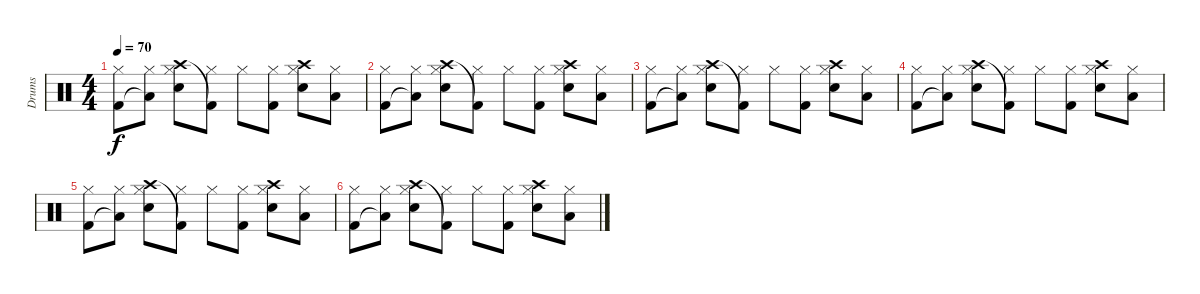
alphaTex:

\track ("Drums" "Drums") {instrument percussion}
\staff {score}
\articulation defaults
\ts (4 4)
\tempo 70
\clef neutral
\ks c
("Kick (hit) 2" "Hi-Hat (closed)").8{dy f} ("Low Floor Tom (hit)"{t} "Hi-Hat (closed)").8 ("Crash high (hit)" "Electric Snare (hit)" "Hi-Hat (closed)").8 ("Kick (hit) 2"{t} "Hi-Hat (closed)").8 "Hi-Hat (closed)".8 ("Kick (hit) 2" "Hi-Hat (closed)").8 ("Crash high (hit)" "Electric Snare (hit)" "Hi-Hat (closed)").8 ("Low Floor Tom (hit)" "Hi-Hat (closed)").8 |
("Kick (hit) 2" "Hi-Hat (closed)").8 ("Low Floor Tom (hit)"{t} "Hi-Hat (closed)").8 ("Crash high (hit)" "Electric Snare (hit)" "Hi-Hat (closed)").8 ("Kick (hit) 2"{t} "Hi-Hat (closed)").8 "Hi-Hat (closed)".8 ("Kick (hit) 2" "Hi-Hat (closed)").8 ("Crash high (hit)" "Electric Snare (hit)" "Hi-Hat (closed)").8 ("Low Floor Tom (hit)" "Hi-Hat (closed)").8 |
("Kick (hit) 2" "Hi-Hat (closed)").8 ("Low Floor Tom (hit)"{t} "Hi-Hat (closed)").8 ("Crash high (hit)" "Electric Snare (hit)" "Hi-Hat (closed)").8 ("Kick (hit) 2"{t} "Hi-Hat (closed)").8 "Hi-Hat (closed)".8 ("Kick (hit) 2" "Hi-Hat (closed)").8 ("Crash high (hit)" "Electric Snare (hit)" "Hi-Hat (closed)").8 ("Low Floor Tom (hit)" "Hi-Hat (closed)").8 |
("Kick (hit) 2" "Hi-Hat (closed)").8 ("Low Floor Tom (hit)"{t} "Hi-Hat (closed)").8 ("Crash high (hit)" "Electric Snare (hit)" "Hi-Hat (closed)").8 ("Kick (hit) 2"{t} "Hi-Hat (closed)").8 "Hi-Hat (closed)".8 ("Kick (hit) 2" "Hi-Hat (closed)").8 ("Crash high (hit)" "Electric Snare (hit)" "Hi-Hat (closed)").8 ("Low Floor Tom (hit)" "Hi-Hat (closed)").8 |
("Kick (hit) 2" "Hi-Hat (closed)").8 ("Low Floor Tom (hit)"{t} "Hi-Hat (closed)").8 ("Crash high (hit)" "Electric Snare (hit)" "Hi-Hat (closed)").8 ("Kick (hit) 2"{t} "Hi-Hat (closed)").8 "Hi-Hat (closed)".8 ("Kick (hit) 2" "Hi-Hat (closed)").8 ("Crash high (hit)" "Electric Snare (hit)" "Hi-Hat (closed)").8 ("Low Floor Tom (hit)" "Hi-Hat (closed)").8 |
("Kick (hit) 2" "Hi-Hat (closed)").8 ("Low Floor Tom (hit)"{t} "Hi-Hat (closed)").8 ("Crash high (hit)" "Electric Snare (hit)" "Hi-Hat (closed)").8 ("Kick (hit) 2"{t} "Hi-Hat (closed)").8 "Hi-Hat (closed)".8 ("Kick (hit) 2" "Hi-Hat (closed)").8 ("Crash high (hit)" "Electric Snare (hit)" "Hi-Hat (closed)").8 ("Low Floor Tom (hit)" "Hi-Hat (closed)").8
